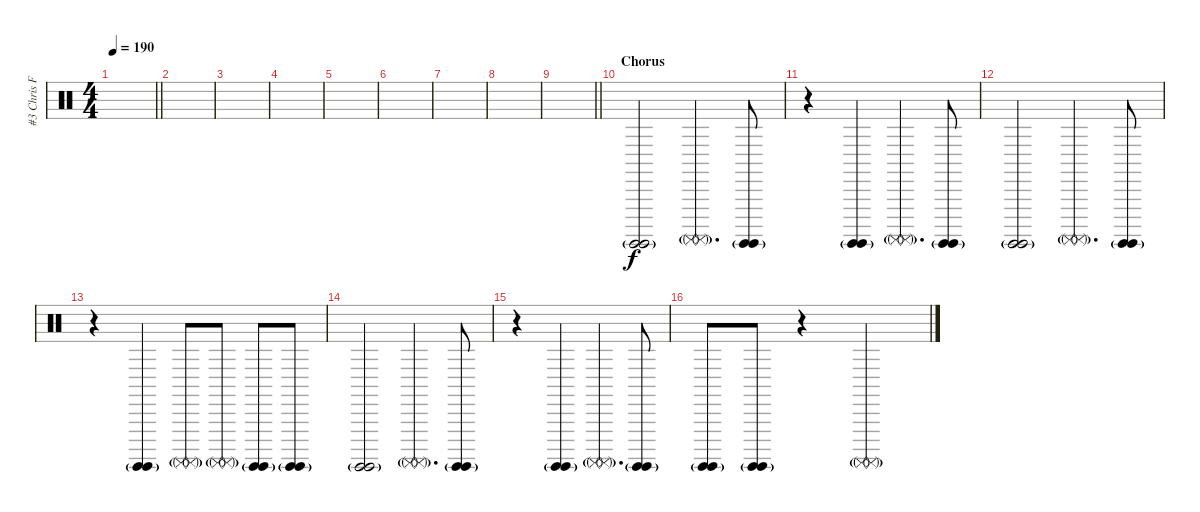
\track ("#3 Chris Fehn" "#3 Chris F") {instrument percussion}
\staff {score}
\articulation defaults
\ts (4 4)
\tempo 190
\clef neutral
\barLineRight lightlight
\ks c
|
|
|
|
|
|
|
|
\barLineRight lightlight
|
\section ("" "Chorus")
("Surdo (hit)"{g} "Surdo (hit)"{g}).2 ("Surdo (mute)"{g} "Surdo (mute)"{g}).4{d} ("Surdo (hit)"{g} "Surdo (hit)"{g}).8 |
r.4 ("Surdo (hit)"{g} "Surdo (hit)"{g}).4 ("Surdo (mute)"{g} "Surdo (mute)"{g}).4{d} ("Surdo (hit)"{g} "Surdo (hit)"{g}).8 |
("Surdo (hit)"{g} "Surdo (hit)"{g}).2 ("Surdo (mute)"{g} "Surdo (mute)"{g}).4{d} ("Surdo (hit)"{g} "Surdo (hit)"{g}).8 |
r.4 ("Surdo (hit)"{g} "Surdo (hit)"{g}).4 ("Surdo (mute)"{g} "Surdo (mute)"{g}).8 ("Surdo (mute)"{g} "Surdo (mute)"{g}).8 ("Surdo (hit)"{g} "Surdo (hit)"{g}).8 ("Surdo (hit)"{g} "Surdo (hit)"{g}).8 |
("Surdo (hit)"{g} "Surdo (hit)"{g}).2 ("Surdo (mute)"{g} "Surdo (mute)"{g}).4{d} ("Surdo (hit)"{g} "Surdo (hit)"{g}).8 |
r.4 ("Surdo (hit)"{g} "Surdo (hit)"{g}).4 ("Surdo (mute)"{g} "Surdo (mute)"{g}).4{d} ("Surdo (hit)"{g} "Surdo (hit)"{g}).8 |
("Surdo (hit)"{g} "Surdo (hit)"{g}).8 ("Surdo (hit)"{g} "Surdo (hit)"{g}).8 r.4 ("Surdo (mute)"{g} "Surdo (mute)"{g}).2
